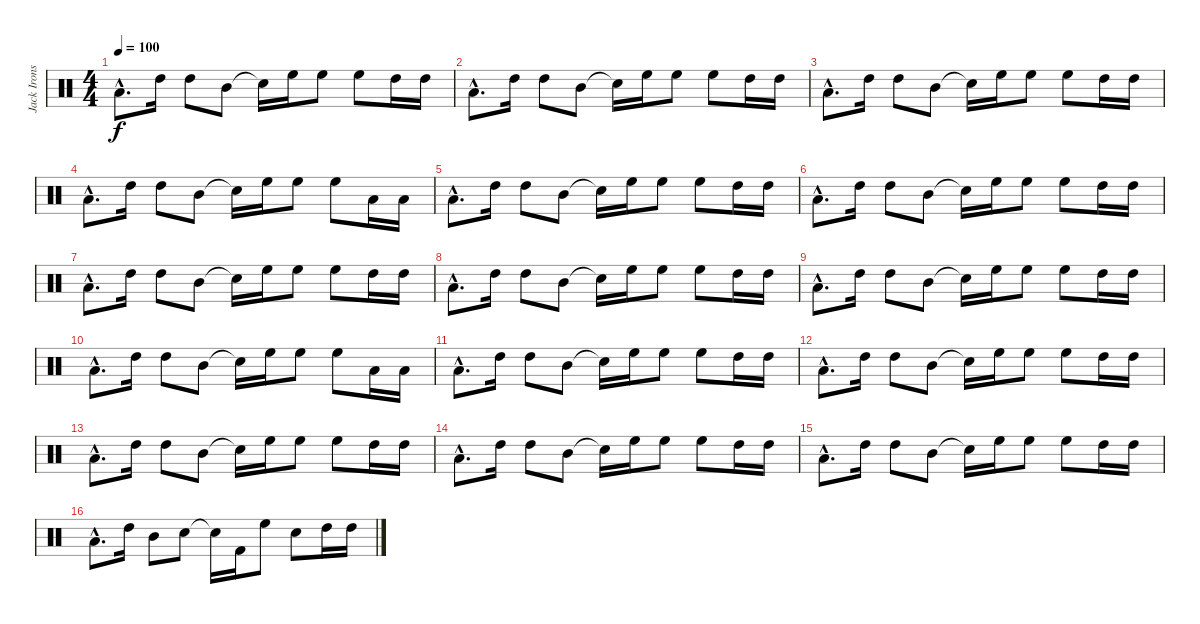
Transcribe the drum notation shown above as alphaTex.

\track ("Jack Irons" "Jack Irons") {instrument percussion}
\staff {score}
\articulation defaults
\ts (4 4)
\tempo 100
\clef neutral
\ks c "Low Floor Tom (hit)"{hac}.8{d dy f} "High Tom (hit)".16 "High Tom (hit)".8 "Mid Tom (hit)".8 "Snare (hit)"{t}.16 "High Floor Tom (hit)".16 "High Floor Tom (hit)".8 "High Floor Tom (hit)".8 "High Tom (hit)".16 "High Tom (hit)".16
|
"Low Floor Tom (hit)"{hac}.8{d} "High Tom (hit)".16 "High Tom (hit)".8 "Mid Tom (hit)".8 "Snare (hit)"{t}.16 "High Floor Tom (hit)".16 "High Floor Tom (hit)".8 "High Floor Tom (hit)".8 "High Tom (hit)".16 "High Tom (hit)".16 |
"Low Floor Tom (hit)"{hac}.8{d} "High Tom (hit)".16 "High Tom (hit)".8 "Mid Tom (hit)".8 "Snare (hit)"{t}.16 "High Floor Tom (hit)".16 "High Floor Tom (hit)".8 "High Floor Tom (hit)".8 "High Tom (hit)".16 "High Tom (hit)".16 |
"Low Floor Tom (hit)"{hac}.8{d} "High Tom (hit)".16 "High Tom (hit)".8 "Mid Tom (hit)".8 "Snare (hit)"{t}.16 "High Floor Tom (hit)".16 "High Floor Tom (hit)".8 "High Floor Tom (hit)".8 "Low Floor Tom (hit)".16 "Low Floor Tom (hit)".16 |
"Low Floor Tom (hit)"{hac}.8{d} "High Tom (hit)".16 "High Tom (hit)".8 "Mid Tom (hit)".8 "Snare (hit)"{t}.16 "High Floor Tom (hit)".16 "High Floor Tom (hit)".8 "High Floor Tom (hit)".8 "High Tom (hit)".16 "High Tom (hit)".16 |
"Low Floor Tom (hit)"{hac}.8{d} "High Tom (hit)".16 "High Tom (hit)".8 "Mid Tom (hit)".8 "Snare (hit)"{t}.16 "High Floor Tom (hit)".16 "High Floor Tom (hit)".8 "High Floor Tom (hit)".8 "High Tom (hit)".16 "High Tom (hit)".16 |
"Low Floor Tom (hit)"{hac}.8{d} "High Tom (hit)".16 "High Tom (hit)".8 "Mid Tom (hit)".8 "Snare (hit)"{t}.16 "High Floor Tom (hit)".16 "High Floor Tom (hit)".8 "High Floor Tom (hit)".8 "High Tom (hit)".16 "High Tom (hit)".16 |
"Low Floor Tom (hit)"{hac}.8{d} "High Tom (hit)".16 "High Tom (hit)".8 "Mid Tom (hit)".8 "Snare (hit)"{t}.16 "High Floor Tom (hit)".16 "High Floor Tom (hit)".8 "High Floor Tom (hit)".8 "High Tom (hit)".16 "High Tom (hit)".16 |
"Low Floor Tom (hit)"{hac}.8{d} "High Tom (hit)".16 "High Tom (hit)".8 "Mid Tom (hit)".8 "Snare (hit)"{t}.16 "High Floor Tom (hit)".16 "High Floor Tom (hit)".8 "High Floor Tom (hit)".8 "High Tom (hit)".16 "High Tom (hit)".16 |
"Low Floor Tom (hit)"{hac}.8{d} "High Tom (hit)".16 "High Tom (hit)".8 "Mid Tom (hit)".8 "Snare (hit)"{t}.16 "High Floor Tom (hit)".16 "High Floor Tom (hit)".8 "High Floor Tom (hit)".8 "Low Floor Tom (hit)".16 "Low Floor Tom (hit)".16 |
"Low Floor Tom (hit)"{hac}.8{d} "High Tom (hit)".16 "High Tom (hit)".8 "Mid Tom (hit)".8 "Snare (hit)"{t}.16 "High Floor Tom (hit)".16 "High Floor Tom (hit)".8 "High Floor Tom (hit)".8 "High Tom (hit)".16 "High Tom (hit)".16 |
"Low Floor Tom (hit)"{hac}.8{d} "High Tom (hit)".16 "High Tom (hit)".8 "Mid Tom (hit)".8 "Snare (hit)"{t}.16 "High Floor Tom (hit)".16 "High Floor Tom (hit)".8 "High Floor Tom (hit)".8 "High Tom (hit)".16 "High Tom (hit)".16 |
"Low Floor Tom (hit)"{hac}.8{d} "High Tom (hit)".16 "High Tom (hit)".8 "Mid Tom (hit)".8 "Snare (hit)"{t}.16 "High Floor Tom (hit)".16 "High Floor Tom (hit)".8 "High Floor Tom (hit)".8 "High Tom (hit)".16 "High Tom (hit)".16 |
"Low Floor Tom (hit)"{hac}.8{d} "High Tom (hit)".16 "High Tom (hit)".8 "Mid Tom (hit)".8 "Snare (hit)"{t}.16 "High Floor Tom (hit)".16 "High Floor Tom (hit)".8 "High Floor Tom (hit)".8 "High Tom (hit)".16 "High Tom (hit)".16 |
"Low Floor Tom (hit)"{hac}.8{d} "High Tom (hit)".16 "High Tom (hit)".8 "Mid Tom (hit)".8 "Snare (hit)"{t}.16 "High Floor Tom (hit)".16 "High Floor Tom (hit)".8 "High Floor Tom (hit)".8 "High Tom (hit)".16 "High Tom (hit)".16 |
"Low Floor Tom (hit)"{hac}.8{d} "High Tom (hit)".16 "Mid Tom (hit)".8 "Snare (hit) 2".8 "Snare (hit)"{t}.16 "Kick (hit) 2".16 "High Floor Tom (hit)".8 "Snare (hit) 2".8 "High Tom (hit)".16 "High Tom (hit)".16
